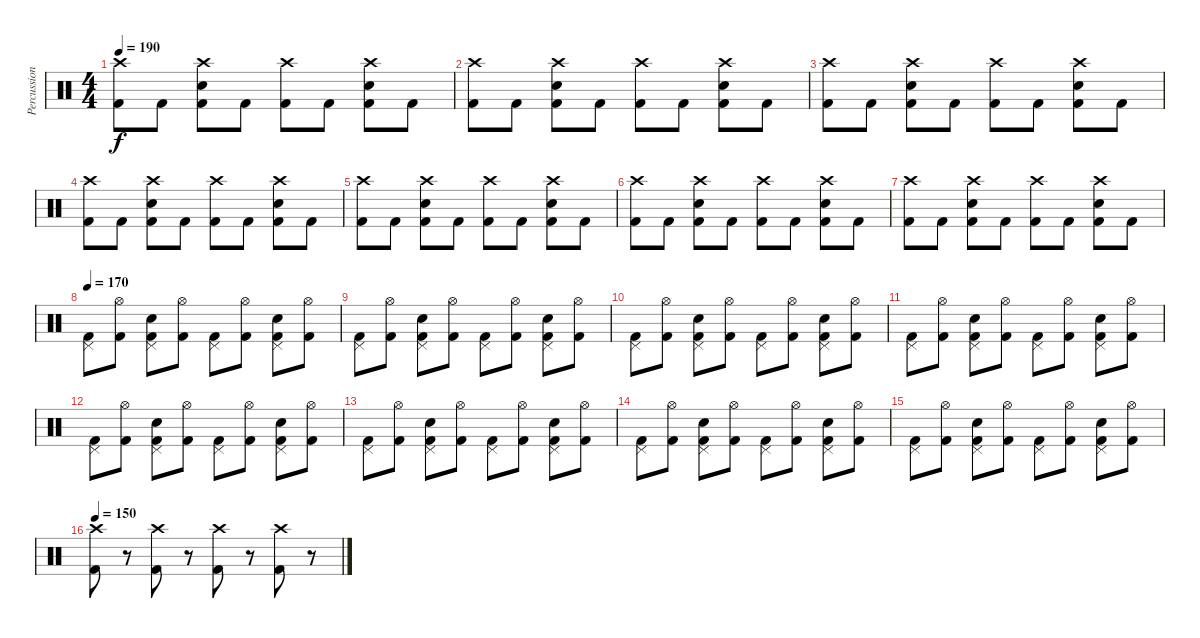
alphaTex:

\track ("Percussion" "Percussion") {instrument percussion}
\staff {score}
\articulation defaults
\ts (4 4)
\tempo 190
\clef neutral
\ks c
("Crash high (hit)" "Kick (hit) 2").8{dy f} "Kick (hit) 2".8 ("Crash high (hit)" "Snare (hit) 2" "Kick (hit) 2").8 "Kick (hit) 2".8 ("Crash high (hit)" "Kick (hit) 2").8 "Kick (hit) 2".8 ("Crash high (hit)" "Snare (hit) 2" "Kick (hit) 2").8 "Kick (hit) 2".8 |
("Crash high (hit)" "Kick (hit) 2").8 "Kick (hit) 2".8 ("Crash high (hit)" "Snare (hit) 2" "Kick (hit) 2").8 "Kick (hit) 2".8 ("Crash high (hit)" "Kick (hit) 2").8 "Kick (hit) 2".8 ("Crash high (hit)" "Snare (hit) 2" "Kick (hit) 2").8 "Kick (hit) 2".8 |
("Crash high (hit)" "Kick (hit) 2").8 "Kick (hit) 2".8 ("Crash high (hit)" "Snare (hit) 2" "Kick (hit) 2").8 "Kick (hit) 2".8 ("Crash high (hit)" "Kick (hit) 2").8 "Kick (hit) 2".8 ("Crash high (hit)" "Snare (hit) 2" "Kick (hit) 2").8 "Kick (hit) 2".8 |
("Crash high (hit)" "Kick (hit) 2").8 "Kick (hit) 2".8 ("Crash high (hit)" "Snare (hit) 2" "Kick (hit) 2").8 "Kick (hit) 2".8 ("Crash high (hit)" "Kick (hit) 2").8 "Kick (hit) 2".8 ("Crash high (hit)" "Snare (hit) 2" "Kick (hit) 2").8 "Kick (hit) 2".8 |
("Crash high (hit)" "Kick (hit) 2").8 "Kick (hit) 2".8 ("Crash high (hit)" "Snare (hit) 2" "Kick (hit) 2").8 "Kick (hit) 2".8 ("Crash high (hit)" "Kick (hit) 2").8 "Kick (hit) 2".8 ("Crash high (hit)" "Snare (hit) 2" "Kick (hit) 2").8 "Kick (hit) 2".8 |
("Crash high (hit)" "Kick (hit) 2").8 "Kick (hit) 2".8 ("Crash high (hit)" "Snare (hit) 2" "Kick (hit) 2").8 "Kick (hit) 2".8 ("Crash high (hit)" "Kick (hit) 2").8 "Kick (hit) 2".8 ("Crash high (hit)" "Snare (hit) 2" "Kick (hit) 2").8 "Kick (hit) 2".8 |
("Crash high (hit)" "Kick (hit) 2").8 "Kick (hit) 2".8 ("Crash high (hit)" "Snare (hit) 2" "Kick (hit) 2").8 "Kick (hit) 2".8 ("Crash high (hit)" "Kick (hit) 2").8 "Kick (hit) 2".8 ("Crash high (hit)" "Snare (hit) 2" "Kick (hit) 2").8 "Kick (hit) 2".8 |
\tempo 100
\tempo 170
("Pedal Hi-Hat (hit)" "Kick (hit) 2").8 ("Hi-Hat (open)" "Kick (hit) 2").8 ("Pedal Hi-Hat (hit)" "Snare (hit) 2" "Kick (hit) 2").8 ("Hi-Hat (open)" "Kick (hit) 2").8 ("Pedal Hi-Hat (hit)" "Kick (hit) 2").8 ("Hi-Hat (open)" "Kick (hit) 2").8 ("Pedal Hi-Hat (hit)" "Snare (hit) 2" "Kick (hit) 2").8 ("Hi-Hat (open)" "Kick (hit) 2").8 |
("Pedal Hi-Hat (hit)" "Kick (hit) 2").8 ("Hi-Hat (open)" "Kick (hit) 2").8 ("Pedal Hi-Hat (hit)" "Snare (hit) 2" "Kick (hit) 2").8 ("Hi-Hat (open)" "Kick (hit) 2").8 ("Pedal Hi-Hat (hit)" "Kick (hit) 2").8 ("Hi-Hat (open)" "Kick (hit) 2").8 ("Pedal Hi-Hat (hit)" "Snare (hit) 2" "Kick (hit) 2").8 ("Hi-Hat (open)" "Kick (hit) 2").8 |
("Pedal Hi-Hat (hit)" "Kick (hit) 2").8 ("Hi-Hat (open)" "Kick (hit) 2").8 ("Pedal Hi-Hat (hit)" "Snare (hit) 2" "Kick (hit) 2").8 ("Hi-Hat (open)" "Kick (hit) 2").8 ("Pedal Hi-Hat (hit)" "Kick (hit) 2").8 ("Hi-Hat (open)" "Kick (hit) 2").8 ("Pedal Hi-Hat (hit)" "Snare (hit) 2" "Kick (hit) 2").8 ("Hi-Hat (open)" "Kick (hit) 2").8 |
("Pedal Hi-Hat (hit)" "Kick (hit) 2").8 ("Hi-Hat (open)" "Kick (hit) 2").8 ("Pedal Hi-Hat (hit)" "Snare (hit) 2" "Kick (hit) 2").8 ("Hi-Hat (open)" "Kick (hit) 2").8 ("Pedal Hi-Hat (hit)" "Kick (hit) 2").8 ("Hi-Hat (open)" "Kick (hit) 2").8 ("Pedal Hi-Hat (hit)" "Snare (hit) 2" "Kick (hit) 2").8 ("Hi-Hat (open)" "Kick (hit) 2").8 |
("Pedal Hi-Hat (hit)" "Kick (hit) 2").8 ("Hi-Hat (open)" "Kick (hit) 2").8 ("Pedal Hi-Hat (hit)" "Snare (hit) 2" "Kick (hit) 2").8 ("Hi-Hat (open)" "Kick (hit) 2").8 ("Pedal Hi-Hat (hit)" "Kick (hit) 2").8 ("Hi-Hat (open)" "Kick (hit) 2").8 ("Pedal Hi-Hat (hit)" "Snare (hit) 2" "Kick (hit) 2").8 ("Hi-Hat (open)" "Kick (hit) 2").8 |
("Pedal Hi-Hat (hit)" "Kick (hit) 2").8 ("Hi-Hat (open)" "Kick (hit) 2").8 ("Pedal Hi-Hat (hit)" "Snare (hit) 2" "Kick (hit) 2").8 ("Hi-Hat (open)" "Kick (hit) 2").8 ("Pedal Hi-Hat (hit)" "Kick (hit) 2").8 ("Hi-Hat (open)" "Kick (hit) 2").8 ("Pedal Hi-Hat (hit)" "Snare (hit) 2" "Kick (hit) 2").8 ("Hi-Hat (open)" "Kick (hit) 2").8 |
("Pedal Hi-Hat (hit)" "Kick (hit) 2").8 ("Hi-Hat (open)" "Kick (hit) 2").8 ("Pedal Hi-Hat (hit)" "Snare (hit) 2" "Kick (hit) 2").8 ("Hi-Hat (open)" "Kick (hit) 2").8 ("Pedal Hi-Hat (hit)" "Kick (hit) 2").8 ("Hi-Hat (open)" "Kick (hit) 2").8 ("Pedal Hi-Hat (hit)" "Snare (hit) 2" "Kick (hit) 2").8 ("Hi-Hat (open)" "Kick (hit) 2").8 |
("Pedal Hi-Hat (hit)" "Kick (hit) 2").8 ("Hi-Hat (open)" "Kick (hit) 2").8 ("Pedal Hi-Hat (hit)" "Snare (hit) 2" "Kick (hit) 2").8 ("Hi-Hat (open)" "Kick (hit) 2").8 ("Pedal Hi-Hat (hit)" "Kick (hit) 2").8 ("Hi-Hat (open)" "Kick (hit) 2").8 ("Pedal Hi-Hat (hit)" "Snare (hit) 2" "Kick (hit) 2").8 ("Hi-Hat (open)" "Kick (hit) 2").8 |
\tempo 150
("Crash high (hit)" "Kick (hit) 2").8 r.8 ("Crash high (hit)" "Kick (hit) 2").8 r.8 ("Crash high (hit)" "Kick (hit) 2").8 r.8 ("Crash high (hit)" "Kick (hit) 2").8 r.8
